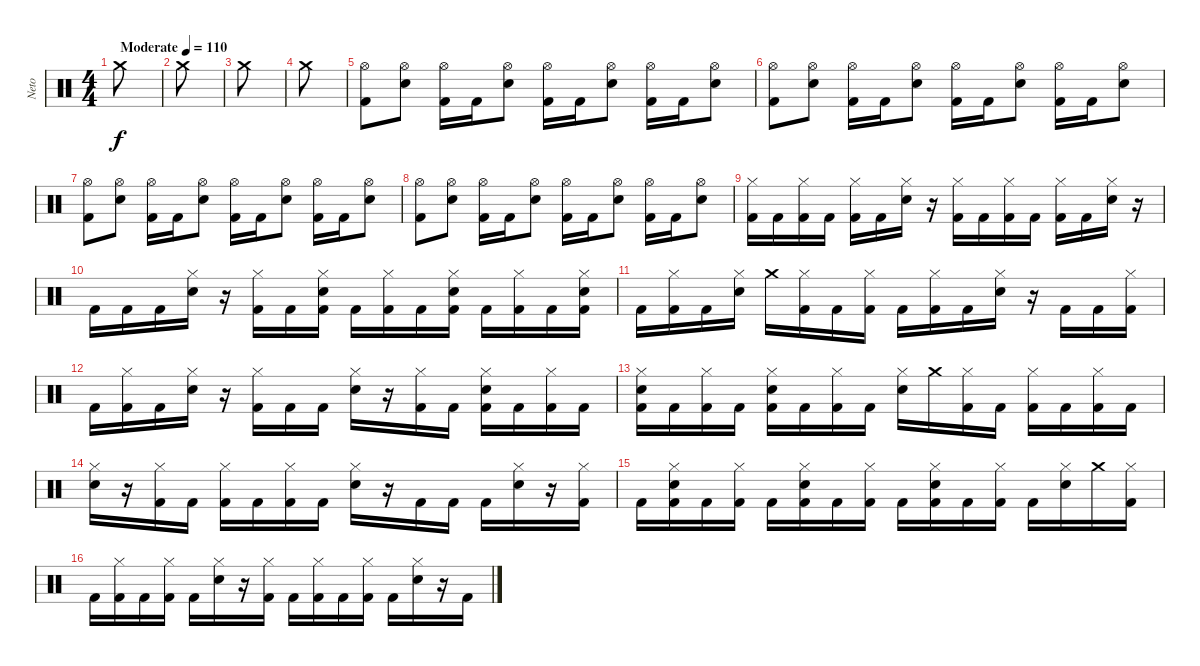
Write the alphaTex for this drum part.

\track ("Neto" "Neto") {instrument percussion}
\staff {score}
\articulation defaults
\ts (4 4)
\tempo (110 "Moderate")
\clef neutral
\ks c "Crash medium (hit)".8{dy f}
|
"Crash medium (hit)".8 |
"Crash medium (hit)".8 |
"Crash medium (hit)".8 |
("Hi-Hat (open)" "Kick (hit) 2").8 ("Hi-Hat (open)" "Electric Snare (hit)").8 ("Hi-Hat (open)" "Kick (hit) 2").16 "Kick (hit) 2".16 ("Hi-Hat (open)" "Electric Snare (hit)").8 ("Hi-Hat (open)" "Kick (hit) 2").16 "Kick (hit) 2".16 ("Hi-Hat (open)" "Electric Snare (hit)").8 ("Hi-Hat (open)" "Kick (hit) 2").16 "Kick (hit) 2".16 ("Hi-Hat (open)" "Electric Snare (hit)").8 |
("Hi-Hat (open)" "Kick (hit) 2").8 ("Hi-Hat (open)" "Electric Snare (hit)").8 ("Hi-Hat (open)" "Kick (hit) 2").16 "Kick (hit) 2".16 ("Hi-Hat (open)" "Electric Snare (hit)").8 ("Hi-Hat (open)" "Kick (hit) 2").16 "Kick (hit) 2".16 ("Hi-Hat (open)" "Electric Snare (hit)").8 ("Hi-Hat (open)" "Kick (hit) 2").16 "Kick (hit) 2".16 ("Hi-Hat (open)" "Electric Snare (hit)").8 |
("Hi-Hat (open)" "Kick (hit) 2").8 ("Hi-Hat (open)" "Electric Snare (hit)").8 ("Hi-Hat (open)" "Kick (hit) 2").16 "Kick (hit) 2".16 ("Hi-Hat (open)" "Electric Snare (hit)").8 ("Hi-Hat (open)" "Kick (hit) 2").16 "Kick (hit) 2".16 ("Hi-Hat (open)" "Electric Snare (hit)").8 ("Hi-Hat (open)" "Kick (hit) 2").16 "Kick (hit) 2".16 ("Hi-Hat (open)" "Electric Snare (hit)").8 |
("Hi-Hat (open)" "Kick (hit) 2").8 ("Hi-Hat (open)" "Electric Snare (hit)").8 ("Hi-Hat (open)" "Kick (hit) 2").16 "Kick (hit) 2".16 ("Hi-Hat (open)" "Electric Snare (hit)").8 ("Hi-Hat (open)" "Kick (hit) 2").16 "Kick (hit) 2".16 ("Hi-Hat (open)" "Electric Snare (hit)").8 ("Hi-Hat (open)" "Kick (hit) 2").16 "Kick (hit) 2".16 ("Hi-Hat (open)" "Electric Snare (hit)").8 |
("Hi-Hat (closed)" "Kick (hit) 2").16 "Kick (hit) 2".16 ("Hi-Hat (closed)" "Kick (hit) 2").16 "Kick (hit) 2".16 ("Hi-Hat (closed)" "Kick (hit) 2").16 "Kick (hit) 2".16 ("Hi-Hat (closed)" "Electric Snare (hit)").16 r.16 ("Hi-Hat (closed)" "Kick (hit) 2").16 "Kick (hit) 2".16 ("Hi-Hat (closed)" "Kick (hit) 2").16 "Kick (hit) 2".16 ("Hi-Hat (closed)" "Kick (hit) 2").16 "Kick (hit) 2".16 ("Hi-Hat (closed)" "Electric Snare (hit)").16 r.16 |
"Kick (hit) 2".16 "Kick (hit) 2".16 "Kick (hit) 2".16 ("Hi-Hat (closed)" "Electric Snare (hit)").16 r.16 ("Hi-Hat (closed)" "Kick (hit) 2").16 "Kick (hit) 2".16 ("Hi-Hat (closed)" "Electric Snare (hit)" "Kick (hit) 2").16 "Kick (hit) 2".16 ("Hi-Hat (closed)" "Kick (hit) 2").16 "Kick (hit) 2".16 ("Hi-Hat (closed)" "Electric Snare (hit)" "Kick (hit) 2").16 "Kick (hit) 2".16 ("Hi-Hat (closed)" "Kick (hit) 2").16 "Kick (hit) 2".16 ("Hi-Hat (closed)" "Electric Snare (hit)" "Kick (hit) 2").16 |
"Kick (hit) 2".16 ("Hi-Hat (closed)" "Kick (hit) 2").16 "Kick (hit) 2".16 ("Hi-Hat (closed)" "Electric Snare (hit)").16 "Crash medium (hit)".16 ("Hi-Hat (closed)" "Kick (hit) 2").16 "Kick (hit) 2".16 ("Hi-Hat (closed)" "Kick (hit) 2").16 "Kick (hit) 2".16 ("Hi-Hat (closed)" "Kick (hit) 2").16 "Kick (hit) 2".16 ("Hi-Hat (closed)" "Electric Snare (hit)").16 r.16 "Kick (hit) 2".16 "Kick (hit) 2".16 ("Hi-Hat (closed)" "Kick (hit) 2").16 |
"Kick (hit) 2".16 ("Hi-Hat (closed)" "Kick (hit) 2").16 "Kick (hit) 2".16 ("Hi-Hat (closed)" "Electric Snare (hit)").16 r.16 ("Hi-Hat (closed)" "Kick (hit) 2").16 "Kick (hit) 2".16 "Kick (hit) 2".16 ("Hi-Hat (closed)" "Electric Snare (hit)").16 r.16 ("Hi-Hat (closed)" "Kick (hit) 2").16 "Kick (hit) 2".16 ("Hi-Hat (closed)" "Electric Snare (hit)" "Kick (hit) 2").16 "Kick (hit) 2".16 ("Hi-Hat (closed)" "Kick (hit) 2").16 "Kick (hit) 2".16 |
("Hi-Hat (closed)" "Electric Snare (hit)" "Kick (hit) 2").16 "Kick (hit) 2".16 ("Hi-Hat (closed)" "Kick (hit) 2").16 "Kick (hit) 2".16 ("Hi-Hat (closed)" "Electric Snare (hit)" "Kick (hit) 2").16 "Kick (hit) 2".16 ("Hi-Hat (closed)" "Kick (hit) 2").16 "Kick (hit) 2".16 ("Hi-Hat (closed)" "Electric Snare (hit)").16 "Crash medium (hit)".16 ("Hi-Hat (closed)" "Kick (hit) 2").16 "Kick (hit) 2".16 ("Hi-Hat (closed)" "Kick (hit) 2").16 "Kick (hit) 2".16 ("Hi-Hat (closed)" "Kick (hit) 2").16 "Kick (hit) 2".16 |
("Hi-Hat (closed)" "Electric Snare (hit)").16 r.16 ("Hi-Hat (closed)" "Kick (hit) 2").16 "Kick (hit) 2".16 ("Hi-Hat (closed)" "Kick (hit) 2").16 "Kick (hit) 2".16 ("Hi-Hat (closed)" "Kick (hit) 2").16 "Kick (hit) 2".16 ("Hi-Hat (closed)" "Electric Snare (hit)").16 r.16 "Kick (hit) 2".16 "Kick (hit) 2".16 "Kick (hit) 2".16 ("Hi-Hat (closed)" "Electric Snare (hit)").16 r.16 ("Hi-Hat (closed)" "Kick (hit) 2").16 |
"Kick (hit) 2".16 ("Hi-Hat (closed)" "Electric Snare (hit)" "Kick (hit) 2").16 "Kick (hit) 2".16 ("Hi-Hat (closed)" "Kick (hit) 2").16 "Kick (hit) 2".16 ("Hi-Hat (closed)" "Electric Snare (hit)" "Kick (hit) 2").16 "Kick (hit) 2".16 ("Hi-Hat (closed)" "Kick (hit) 2").16 "Kick (hit) 2".16 ("Hi-Hat (closed)" "Electric Snare (hit)" "Kick (hit) 2").16 "Kick (hit) 2".16 ("Hi-Hat (closed)" "Kick (hit) 2").16 "Kick (hit) 2".16 ("Hi-Hat (closed)" "Electric Snare (hit)").16 "Crash medium (hit)".16 ("Hi-Hat (closed)" "Kick (hit) 2").16 |
"Kick (hit) 2".16 ("Hi-Hat (closed)" "Kick (hit) 2").16 "Kick (hit) 2".16 ("Hi-Hat (closed)" "Kick (hit) 2").16 "Kick (hit) 2".16 ("Hi-Hat (closed)" "Electric Snare (hit)").16 r.16 ("Hi-Hat (closed)" "Kick (hit) 2").16 "Kick (hit) 2".16 ("Hi-Hat (closed)" "Kick (hit) 2").16 "Kick (hit) 2".16 ("Hi-Hat (closed)" "Kick (hit) 2").16 "Kick (hit) 2".16 ("Hi-Hat (closed)" "Electric Snare (hit)").16 r.16 "Kick (hit) 2".16
